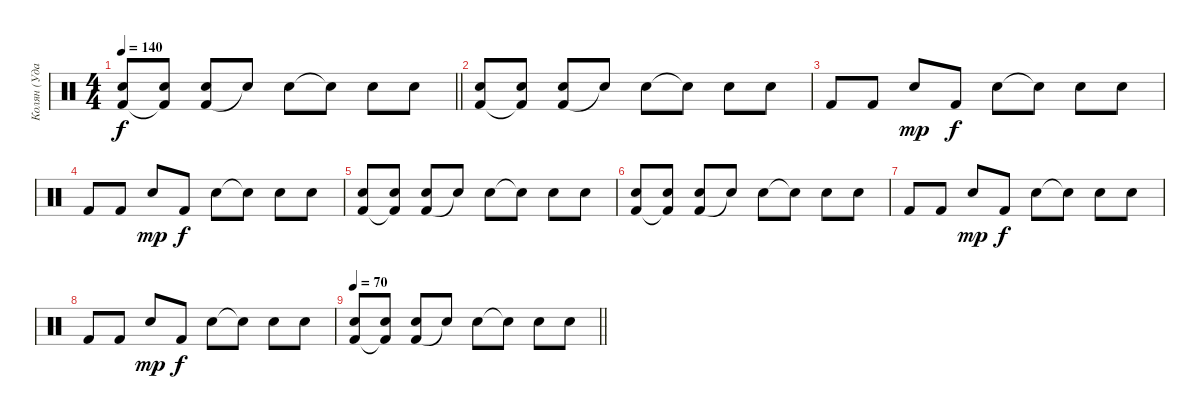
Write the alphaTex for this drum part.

\track ("Колян (Ударные)" "Колян (Уда") {instrument percussion}
\staff {score}
\articulation defaults
\ts (4 4)
\tempo 140
\clef neutral
\barLineRight lightlight
\ks c
("Kick (hit) 2" "Snare (hit) 2").8{dy f} ("Kick (hit) 2"{t} "Snare (hit) 2").8 ("Kick (hit) 2" "Snare (hit) 2").8 "Snare (hit)"{t}.8 "Snare (hit) 2".8 "Snare (hit)"{t}.8 "Snare (hit) 2".8 "Snare (hit) 2".8 |
("Kick (hit) 2" "Snare (hit) 2").8 ("Kick (hit) 2"{t} "Snare (hit) 2").8 ("Kick (hit) 2" "Snare (hit) 2").8 "Snare (hit)"{t}.8 "Snare (hit) 2".8 "Snare (hit)"{t}.8 "Snare (hit) 2".8 "Snare (hit) 2".8 |
"Kick (hit) 2".8 "Kick (hit) 2".8 "Snare (hit) 2".8{dy mp} "Kick (hit) 2".8{dy f} "Snare (hit) 2".8 "Snare (hit)"{t}.8 "Snare (hit) 2".8 "Snare (hit) 2".8 |
"Kick (hit) 2".8 "Kick (hit) 2".8 "Snare (hit) 2".8{dy mp} "Kick (hit) 2".8{dy f} "Snare (hit) 2".8 "Snare (hit)"{t}.8 "Snare (hit) 2".8 "Snare (hit) 2".8 |
("Kick (hit) 2" "Snare (hit) 2").8 ("Kick (hit) 2"{t} "Snare (hit) 2").8 ("Kick (hit) 2" "Snare (hit) 2").8 "Snare (hit)"{t}.8 "Snare (hit) 2".8 "Snare (hit)"{t}.8 "Snare (hit) 2".8 "Snare (hit) 2".8 |
("Kick (hit) 2" "Snare (hit) 2").8 ("Kick (hit) 2"{t} "Snare (hit) 2").8 ("Kick (hit) 2" "Snare (hit) 2").8 "Snare (hit)"{t}.8 "Snare (hit) 2".8 "Snare (hit)"{t}.8 "Snare (hit) 2".8 "Snare (hit) 2".8 |
"Kick (hit) 2".8 "Kick (hit) 2".8 "Snare (hit) 2".8{dy mp} "Kick (hit) 2".8{dy f} "Snare (hit) 2".8 "Snare (hit)"{t}.8 "Snare (hit) 2".8 "Snare (hit) 2".8 |
"Kick (hit) 2".8 "Kick (hit) 2".8 "Snare (hit) 2".8{dy mp} "Kick (hit) 2".8{dy f} "Snare (hit) 2".8 "Snare (hit)"{t}.8 "Snare (hit) 2".8 "Snare (hit) 2".8 |
\tempo 70
\barLineRight lightlight
("Kick (hit) 2" "Snare (hit) 2").8 ("Kick (hit) 2"{t} "Snare (hit) 2").8 ("Kick (hit) 2" "Snare (hit) 2").8 "Snare (hit)"{t}.8 "Snare (hit) 2".8 "Snare (hit)"{t}.8 "Snare (hit) 2".8 "Snare (hit) 2".8
